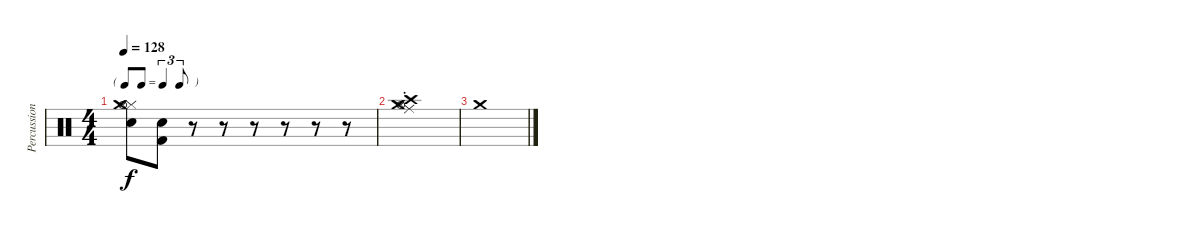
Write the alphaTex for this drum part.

\track ("Percussion" "Percussion") {instrument percussion}
\staff {score}
\articulation defaults
\ts (4 4)
\tf triplet8th
\tempo 128
\clef neutral
\ks c
("Electric Snare (hit)" "Hi-Hat (closed)" "Crash medium (hit)" "Hi-Hat (open)").8{dy f} ("Kick (hit) 2" "Electric Snare (hit)").8 r.8 r.8 r.8 r.8 r.8 r.8 |
("Crash medium (hit)" "Hi-Hat (open)" "Ride (choke)" "Crash high (hit)").1 |
"Crash medium (hit)".1
